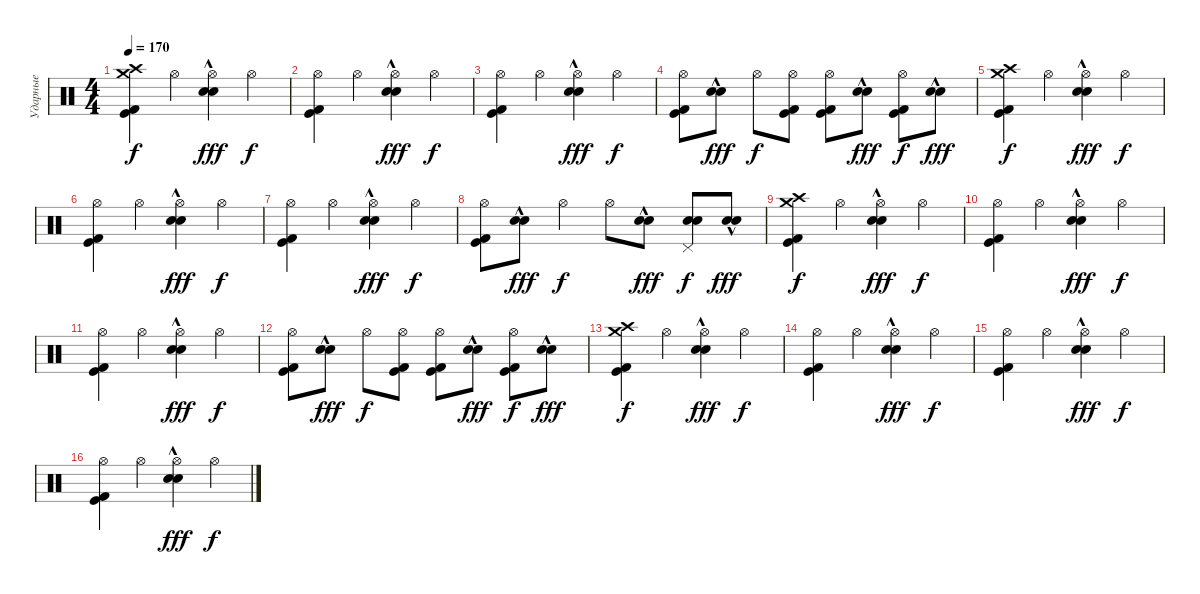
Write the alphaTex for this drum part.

\track ("Ударные" "Ударные") {instrument percussion}
\staff {score}
\articulation defaults
\ts (4 4)
\tempo 170
\clef neutral
\ks c
("Crash high (hit)" "Kick (hit)" "Kick (hit) 2" "Crash medium (hit)").4{dy f} "Hi-Hat (open)".4 ("Hi-Hat (open)" "Snare (hit) 2"{hac} "Electric Snare (hit)"{hac}).4{dy fff} "Hi-Hat (open)".4{dy f} |
("Hi-Hat (open)" "Kick (hit)" "Kick (hit) 2").4 "Hi-Hat (open)".4 ("Hi-Hat (open)" "Snare (hit) 2"{hac} "Electric Snare (hit)"{hac}).4{dy fff} "Hi-Hat (open)".4{dy f} |
("Hi-Hat (open)" "Kick (hit)" "Kick (hit) 2").4 "Hi-Hat (open)".4 ("Hi-Hat (open)" "Snare (hit) 2"{hac} "Electric Snare (hit)"{hac}).4{dy fff} "Hi-Hat (open)".4{dy f} |
("Hi-Hat (open)" "Kick (hit)" "Kick (hit) 2").8 ("Snare (hit) 2"{hac} "Electric Snare (hit)"{hac}).8{dy fff} "Hi-Hat (open)".8{dy f} ("Hi-Hat (open)" "Kick (hit)" "Kick (hit) 2").8 ("Hi-Hat (open)" "Kick (hit)" "Kick (hit) 2").8 ("Snare (hit) 2"{hac} "Electric Snare (hit)"{hac}).8{dy fff} ("Hi-Hat (open)" "Kick (hit)" "Kick (hit) 2").8{dy f} ("Snare (hit) 2"{hac} "Electric Snare (hit)"{hac}).8{dy fff} |
("Crash high (hit)" "Kick (hit)" "Kick (hit) 2" "Crash medium (hit)").4{dy f} "Hi-Hat (open)".4 ("Hi-Hat (open)" "Snare (hit) 2"{hac} "Electric Snare (hit)"{hac}).4{dy fff} "Hi-Hat (open)".4{dy f} |
("Hi-Hat (open)" "Kick (hit)" "Kick (hit) 2").4 "Hi-Hat (open)".4 ("Hi-Hat (open)" "Snare (hit) 2"{hac} "Electric Snare (hit)"{hac}).4{dy fff} "Hi-Hat (open)".4{dy f} |
("Hi-Hat (open)" "Kick (hit)" "Kick (hit) 2").4 "Hi-Hat (open)".4 ("Hi-Hat (open)" "Snare (hit) 2"{hac} "Electric Snare (hit)"{hac}).4{dy fff} "Hi-Hat (open)".4{dy f} |
("Hi-Hat (open)" "Kick (hit)" "Kick (hit) 2").8 ("Snare (hit) 2"{hac} "Electric Snare (hit)"{hac}).8{dy fff} "Hi-Hat (open)".4{dy f} "Hi-Hat (open)".8 ("Snare (hit) 2"{hac} "Electric Snare (hit)"{hac}).8{dy fff} ("Pedal Hi-Hat (hit)" "Snare (hit) 2" "Electric Snare (hit)").8{dy f} ("Snare (hit) 2"{hac} "Electric Snare (hit)"{hac}).8{dy fff} |
("Crash high (hit)" "Kick (hit)" "Kick (hit) 2" "Crash medium (hit)").4{dy f} "Hi-Hat (open)".4 ("Hi-Hat (open)" "Snare (hit) 2"{hac} "Electric Snare (hit)"{hac}).4{dy fff} "Hi-Hat (open)".4{dy f} |
("Hi-Hat (open)" "Kick (hit)" "Kick (hit) 2").4 "Hi-Hat (open)".4 ("Hi-Hat (open)" "Snare (hit) 2"{hac} "Electric Snare (hit)"{hac}).4{dy fff} "Hi-Hat (open)".4{dy f} |
("Hi-Hat (open)" "Kick (hit)" "Kick (hit) 2").4 "Hi-Hat (open)".4 ("Hi-Hat (open)" "Snare (hit) 2"{hac} "Electric Snare (hit)"{hac}).4{dy fff} "Hi-Hat (open)".4{dy f} |
("Hi-Hat (open)" "Kick (hit)" "Kick (hit) 2").8 ("Snare (hit) 2"{hac} "Electric Snare (hit)"{hac}).8{dy fff} "Hi-Hat (open)".8{dy f} ("Hi-Hat (open)" "Kick (hit)" "Kick (hit) 2").8 ("Hi-Hat (open)" "Kick (hit)" "Kick (hit) 2").8 ("Snare (hit) 2"{hac} "Electric Snare (hit)"{hac}).8{dy fff} ("Hi-Hat (open)" "Kick (hit)" "Kick (hit) 2").8{dy f} ("Snare (hit) 2"{hac} "Electric Snare (hit)"{hac}).8{dy fff} |
("Crash high (hit)" "Kick (hit)" "Kick (hit) 2" "Crash medium (hit)").4{dy f} "Hi-Hat (open)".4 ("Hi-Hat (open)" "Snare (hit) 2"{hac} "Electric Snare (hit)"{hac}).4{dy fff} "Hi-Hat (open)".4{dy f} |
("Hi-Hat (open)" "Kick (hit)" "Kick (hit) 2").4 "Hi-Hat (open)".4 ("Hi-Hat (open)" "Snare (hit) 2"{hac} "Electric Snare (hit)"{hac}).4{dy fff} "Hi-Hat (open)".4{dy f} |
("Hi-Hat (open)" "Kick (hit)" "Kick (hit) 2").4 "Hi-Hat (open)".4 ("Hi-Hat (open)" "Snare (hit) 2"{hac} "Electric Snare (hit)"{hac}).4{dy fff} "Hi-Hat (open)".4{dy f} |
("Hi-Hat (open)" "Kick (hit)" "Kick (hit) 2").4 "Hi-Hat (open)".4 ("Hi-Hat (open)" "Snare (hit) 2"{hac} "Electric Snare (hit)"{hac}).4{dy fff} "Hi-Hat (open)".4{dy f}
